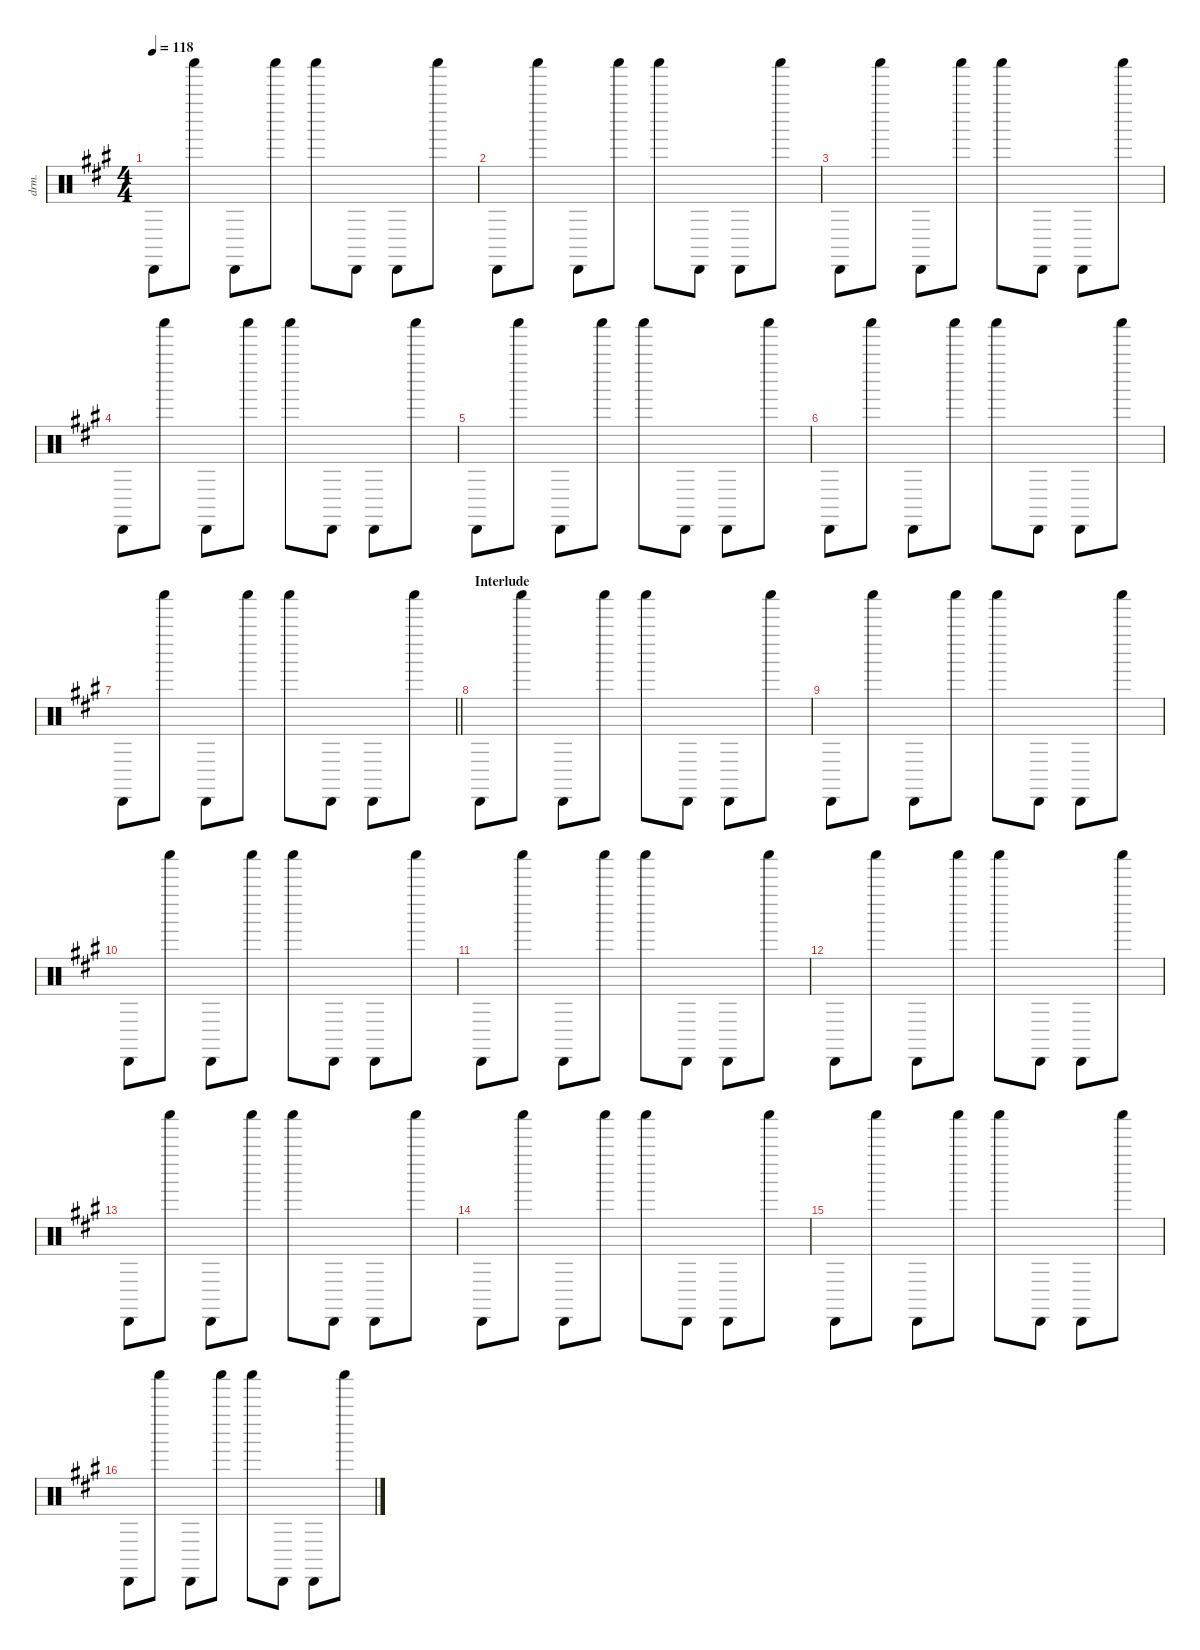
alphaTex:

\defaultSystemsLayout 4
\hideDynamics
\bracketExtendMode nobrackets
\otherSystemsTrackNameOrientation horizontal
\track ("shaker" "drm.") {instrument percussion}
\staff {score}
\articulation defaults
\ts (4 4)
\tempo 118
\clef neutral
\ks f#minor "Cabasa (hit)"{acc forcenatural}.8{dy f} "Shaker (hit)"{acc forcenatural}.8 "Cabasa (hit)"{acc forcenatural}.8{dy mp} "Shaker (hit)"{acc forcenatural}.8{dy f} "Shaker (hit)"{acc forcenatural}.8{dy p} "Cabasa (hit)"{acc forcenatural}.8{dy f} "Cabasa (hit)"{acc forcenatural}.8 "Shaker (hit)"{acc forcenatural}.8
|
"Cabasa (hit)"{acc forcenatural}.8 "Shaker (hit)"{acc forcenatural}.8 "Cabasa (hit)"{acc forcenatural}.8{dy mp} "Shaker (hit)"{acc forcenatural}.8{dy f} "Shaker (hit)"{acc forcenatural}.8{dy p} "Cabasa (hit)"{acc forcenatural}.8{dy f} "Cabasa (hit)"{acc forcenatural}.8 "Shaker (hit)"{acc forcenatural}.8 |
"Cabasa (hit)"{acc forcenatural}.8 "Shaker (hit)"{acc forcenatural}.8 "Cabasa (hit)"{acc forcenatural}.8{dy mp} "Shaker (hit)"{acc forcenatural}.8{dy f} "Shaker (hit)"{acc forcenatural}.8{dy p} "Cabasa (hit)"{acc forcenatural}.8{dy f} "Cabasa (hit)"{acc forcenatural}.8 "Shaker (hit)"{acc forcenatural}.8 |
"Cabasa (hit)"{acc forcenatural}.8 "Shaker (hit)"{acc forcenatural}.8 "Cabasa (hit)"{acc forcenatural}.8{dy mp} "Shaker (hit)"{acc forcenatural}.8{dy f} "Shaker (hit)"{acc forcenatural}.8{dy p} "Cabasa (hit)"{acc forcenatural}.8{dy f} "Cabasa (hit)"{acc forcenatural}.8 "Shaker (hit)"{acc forcenatural}.8 |
"Cabasa (hit)"{acc forcenatural}.8 "Shaker (hit)"{acc forcenatural}.8 "Cabasa (hit)"{acc forcenatural}.8{dy mp} "Shaker (hit)"{acc forcenatural}.8{dy f} "Shaker (hit)"{acc forcenatural}.8{dy p} "Cabasa (hit)"{acc forcenatural}.8{dy f} "Cabasa (hit)"{acc forcenatural}.8 "Shaker (hit)"{acc forcenatural}.8 |
"Cabasa (hit)"{acc forcenatural}.8 "Shaker (hit)"{acc forcenatural}.8 "Cabasa (hit)"{acc forcenatural}.8{dy mp} "Shaker (hit)"{acc forcenatural}.8{dy f} "Shaker (hit)"{acc forcenatural}.8{dy p} "Cabasa (hit)"{acc forcenatural}.8{dy f} "Cabasa (hit)"{acc forcenatural}.8 "Shaker (hit)"{acc forcenatural}.8 |
\barLineRight lightlight "Cabasa (hit)"{acc forcenatural}.8 "Shaker (hit)"{acc forcenatural}.8 "Cabasa (hit)"{acc forcenatural}.8{dy mp} "Shaker (hit)"{acc forcenatural}.8{dy f} "Shaker (hit)"{acc forcenatural}.8{dy p} "Cabasa (hit)"{acc forcenatural}.8{dy f} "Cabasa (hit)"{acc forcenatural}.8 "Shaker (hit)"{acc forcenatural}.8
|
\section ("" "Interlude")
"Cabasa (hit)"{acc forcenatural}.8 "Shaker (hit)"{acc forcenatural}.8 "Cabasa (hit)"{acc forcenatural}.8{dy mp} "Shaker (hit)"{acc forcenatural}.8{dy f} "Shaker (hit)"{acc forcenatural}.8{dy p} "Cabasa (hit)"{acc forcenatural}.8{dy f} "Cabasa (hit)"{acc forcenatural}.8 "Shaker (hit)"{acc forcenatural}.8 |
"Cabasa (hit)"{acc forcenatural}.8 "Shaker (hit)"{acc forcenatural}.8 "Cabasa (hit)"{acc forcenatural}.8{dy mp} "Shaker (hit)"{acc forcenatural}.8{dy f} "Shaker (hit)"{acc forcenatural}.8{dy p} "Cabasa (hit)"{acc forcenatural}.8{dy f} "Cabasa (hit)"{acc forcenatural}.8 "Shaker (hit)"{acc forcenatural}.8 |
"Cabasa (hit)"{acc forcenatural}.8 "Shaker (hit)"{acc forcenatural}.8 "Cabasa (hit)"{acc forcenatural}.8{dy mp} "Shaker (hit)"{acc forcenatural}.8{dy f} "Shaker (hit)"{acc forcenatural}.8{dy p} "Cabasa (hit)"{acc forcenatural}.8{dy f} "Cabasa (hit)"{acc forcenatural}.8 "Shaker (hit)"{acc forcenatural}.8 |
"Cabasa (hit)"{acc forcenatural}.8 "Shaker (hit)"{acc forcenatural}.8 "Cabasa (hit)"{acc forcenatural}.8{dy mp} "Shaker (hit)"{acc forcenatural}.8{dy f} "Shaker (hit)"{acc forcenatural}.8{dy p} "Cabasa (hit)"{acc forcenatural}.8{dy f} "Cabasa (hit)"{acc forcenatural}.8 "Shaker (hit)"{acc forcenatural}.8 |
"Cabasa (hit)"{acc forcenatural}.8 "Shaker (hit)"{acc forcenatural}.8 "Cabasa (hit)"{acc forcenatural}.8{dy mp} "Shaker (hit)"{acc forcenatural}.8{dy f} "Shaker (hit)"{acc forcenatural}.8{dy p} "Cabasa (hit)"{acc forcenatural}.8{dy f} "Cabasa (hit)"{acc forcenatural}.8 "Shaker (hit)"{acc forcenatural}.8 |
"Cabasa (hit)"{acc forcenatural}.8 "Shaker (hit)"{acc forcenatural}.8 "Cabasa (hit)"{acc forcenatural}.8{dy mp} "Shaker (hit)"{acc forcenatural}.8{dy f} "Shaker (hit)"{acc forcenatural}.8{dy p} "Cabasa (hit)"{acc forcenatural}.8{dy f} "Cabasa (hit)"{acc forcenatural}.8 "Shaker (hit)"{acc forcenatural}.8 |
"Cabasa (hit)"{acc forcenatural}.8 "Shaker (hit)"{acc forcenatural}.8 "Cabasa (hit)"{acc forcenatural}.8{dy mp} "Shaker (hit)"{acc forcenatural}.8{dy f} "Shaker (hit)"{acc forcenatural}.8{dy p} "Cabasa (hit)"{acc forcenatural}.8{dy f} "Cabasa (hit)"{acc forcenatural}.8 "Shaker (hit)"{acc forcenatural}.8 |
"Cabasa (hit)"{acc forcenatural}.8 "Shaker (hit)"{acc forcenatural}.8 "Cabasa (hit)"{acc forcenatural}.8{dy mp} "Shaker (hit)"{acc forcenatural}.8{dy f} "Shaker (hit)"{acc forcenatural}.8{dy p} "Cabasa (hit)"{acc forcenatural}.8{dy f} "Cabasa (hit)"{acc forcenatural}.8 "Shaker (hit)"{acc forcenatural}.8 |
"Cabasa (hit)"{acc forcenatural}.8 "Shaker (hit)"{acc forcenatural}.8 "Cabasa (hit)"{acc forcenatural}.8{dy mp} "Shaker (hit)"{acc forcenatural}.8{dy f} "Shaker (hit)"{acc forcenatural}.8{dy p} "Cabasa (hit)"{acc forcenatural}.8{dy f} "Cabasa (hit)"{acc forcenatural}.8 "Shaker (hit)"{acc forcenatural}.8
